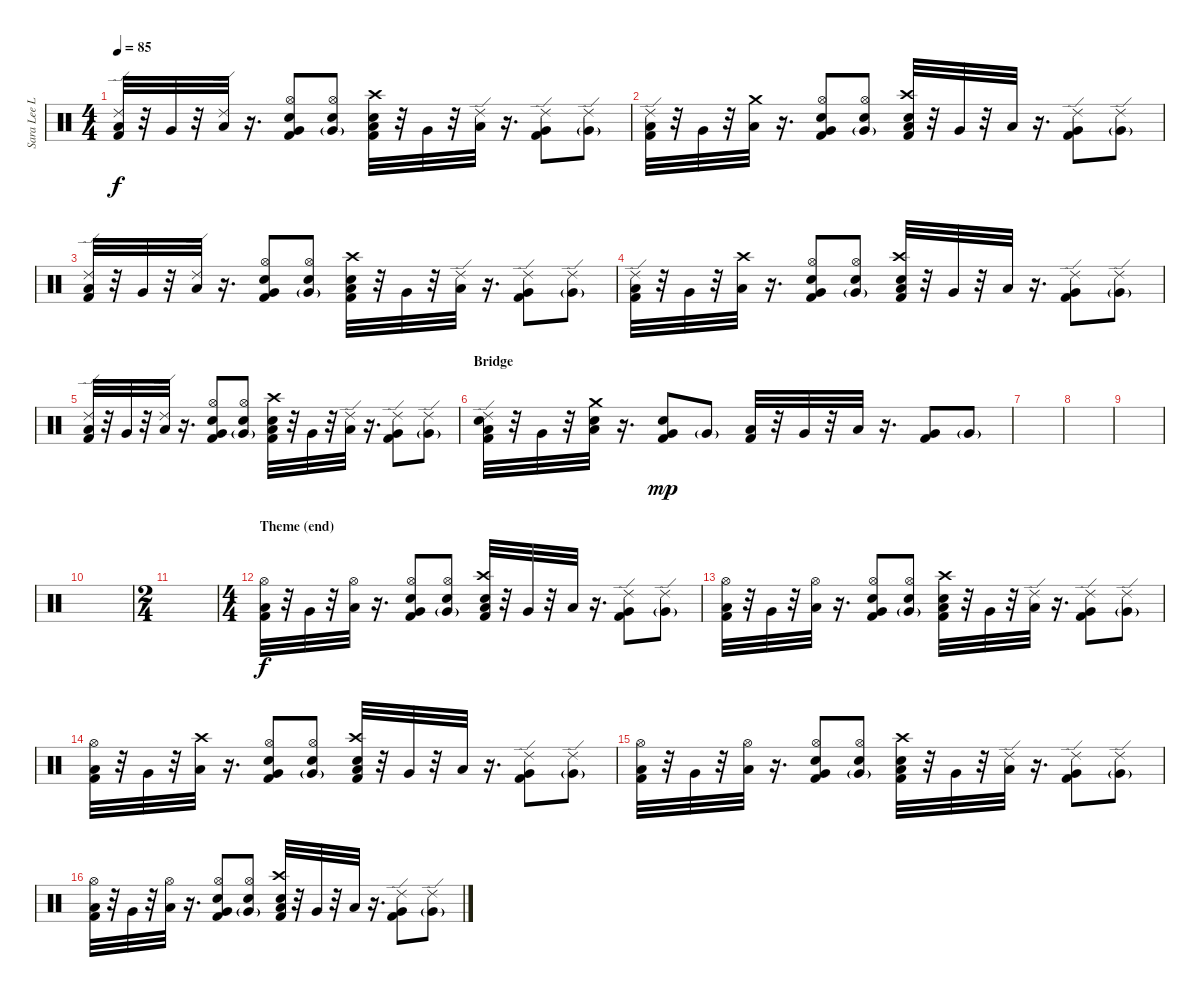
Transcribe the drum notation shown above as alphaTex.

\track ("Sara Lee Lucas [Drums]" "Sara Lee L") {instrument percussion}
\staff {score}
\articulation defaults
\ts (4 4)
\tempo 85
\clef neutral
\ks c
("Ride (edge) 2" "Low Tom (hit)" "Kick (hit) 2").32{dy f} r.32 "Very Low Tom (hit)".32 r.32 ("Ride (edge) 2" "Low Floor Tom (hit)").32 r.16{d} ("Hi-Hat (open)" "Very Low Tom (hit)" "Snare (hit) 2" "Kick (hit) 2").8 ("Hi-Hat (open)" "Very Low Tom (hit)"{g} "Snare (hit) 2").8 ("Crash high (hit)" "Low Tom (hit)" "Electric Snare (hit)" "Kick (hit) 2").32 r.32 "Very Low Tom (hit)".32 r.32 ("Ride (edge) 2" "Low Floor Tom (hit)").32 r.16{d} ("Ride (edge) 2" "Very Low Tom (hit)" "Kick (hit) 2").8 ("Ride (edge) 2" "Very Low Tom (hit)"{g}).8 |
("Ride (edge) 2" "Low Tom (hit)" "Kick (hit) 2").32 r.32 "Very Low Tom (hit)".32 r.32 ("Crash medium (hit)" "Low Floor Tom (hit)").32 r.16{d} ("Hi-Hat (open)" "Very Low Tom (hit)" "Snare (hit) 2" "Kick (hit) 2").8 ("Hi-Hat (open)" "Very Low Tom (hit)"{g} "Snare (hit) 2").8 ("Crash high (hit)" "Low Tom (hit)" "Electric Snare (hit)" "Kick (hit) 2").32 r.32 "Very Low Tom (hit)".32 r.32 "Low Floor Tom (hit)".32 r.16{d} ("Ride (edge) 2" "Very Low Tom (hit)" "Kick (hit) 2").8 ("Ride (edge) 2" "Very Low Tom (hit)"{g}).8 |
("Ride (edge) 2" "Low Tom (hit)" "Kick (hit) 2").32 r.32 "Very Low Tom (hit)".32 r.32 ("Ride (edge) 2" "Low Floor Tom (hit)").32 r.16{d} ("Hi-Hat (open)" "Very Low Tom (hit)" "Snare (hit) 2" "Kick (hit) 2").8 ("Hi-Hat (open)" "Very Low Tom (hit)"{g} "Snare (hit) 2").8 ("Crash high (hit)" "Low Tom (hit)" "Electric Snare (hit)" "Kick (hit) 2").32 r.32 "Very Low Tom (hit)".32 r.32 ("Ride (edge) 2" "Low Floor Tom (hit)").32 r.16{d} ("Ride (edge) 2" "Very Low Tom (hit)" "Kick (hit) 2").8 ("Ride (edge) 2" "Very Low Tom (hit)"{g}).8 |
("Ride (edge) 2" "Low Tom (hit)" "Kick (hit) 2").32 r.32 "Very Low Tom (hit)".32 r.32 ("Crash high (hit)" "Low Floor Tom (hit)").32 r.16{d} ("Hi-Hat (open)" "Very Low Tom (hit)" "Snare (hit) 2" "Kick (hit) 2").8 ("Hi-Hat (open)" "Very Low Tom (hit)"{g} "Snare (hit) 2").8 ("Crash high (hit)" "Low Tom (hit)" "Electric Snare (hit)" "Kick (hit) 2").32 r.32 "Very Low Tom (hit)".32 r.32 "Low Floor Tom (hit)".32 r.16{d} ("Ride (edge) 2" "Very Low Tom (hit)" "Kick (hit) 2").8 ("Ride (edge) 2" "Very Low Tom (hit)"{g}).8 |
("Ride (edge) 2" "Low Tom (hit)" "Kick (hit) 2").32 r.32 "Very Low Tom (hit)".32 r.32 ("Ride (edge) 2" "Low Floor Tom (hit)").32 r.16{d} ("Hi-Hat (open)" "Very Low Tom (hit)" "Snare (hit) 2" "Kick (hit) 2").8 ("Hi-Hat (open)" "Very Low Tom (hit)"{g} "Snare (hit) 2").8 ("Crash high (hit)" "Low Tom (hit)" "Electric Snare (hit)" "Kick (hit) 2").32 r.32 "Very Low Tom (hit)".32 r.32 ("Ride (edge) 2" "Low Floor Tom (hit)").32 r.16{d} ("Ride (edge) 2" "Very Low Tom (hit)" "Kick (hit) 2").8 ("Ride (edge) 2" "Very Low Tom (hit)"{g}).8 |
\section ("" "Bridge")
("Ride (edge) 2" "Low Tom (hit)" "Snare (hit) 2" "Kick (hit) 2").32 r.32 "Very Low Tom (hit)".32 r.32 ("Crash medium (hit)" "Low Floor Tom (hit)" "Snare (hit) 2").32 r.16{d} ("Very Low Tom (hit)" "Electric Snare (hit)" "Kick (hit) 2").8{dy mp} "Very Low Tom (hit)"{g}.8 ("Low Tom (hit)" "Kick (hit) 2").32 r.32 "Very Low Tom (hit)".32 r.32 "Low Floor Tom (hit)".32 r.16{d} ("Very Low Tom (hit)" "Kick (hit) 2").8 "Very Low Tom (hit)"{g}.8 |
|
|
|
|
\ts (2 4)
|
\ts (4 4)
\section ("" "Theme (end)")
("Hi-Hat (open)" "Low Tom (hit)" "Kick (hit) 2").32{dy f} r.32 "Very Low Tom (hit)".32 r.32 ("Hi-Hat (open)" "Low Floor Tom (hit)").32 r.16{d} ("Hi-Hat (open)" "Very Low Tom (hit)" "Snare (hit) 2" "Kick (hit) 2").8 ("Hi-Hat (open)" "Very Low Tom (hit)"{g} "Snare (hit) 2").8 ("Crash high (hit)" "Low Tom (hit)" "Electric Snare (hit)" "Kick (hit) 2").32 r.32 "Very Low Tom (hit)".32 r.32 "Low Floor Tom (hit)".32 r.16{d} ("Ride (edge) 2" "Very Low Tom (hit)" "Kick (hit) 2").8 ("Ride (edge) 2" "Very Low Tom (hit)"{g}).8 |
("Hi-Hat (open)" "Low Tom (hit)" "Kick (hit) 2").32 r.32 "Very Low Tom (hit)".32 r.32 ("Hi-Hat (open)" "Low Floor Tom (hit)").32 r.16{d} ("Hi-Hat (open)" "Very Low Tom (hit)" "Snare (hit) 2" "Kick (hit) 2").8 ("Hi-Hat (open)" "Very Low Tom (hit)"{g} "Snare (hit) 2").8 ("Crash high (hit)" "Low Tom (hit)" "Electric Snare (hit)" "Kick (hit) 2").32 r.32 "Very Low Tom (hit)".32 r.32 ("Ride (edge) 2" "Low Floor Tom (hit)").32 r.16{d} ("Ride (edge) 2" "Very Low Tom (hit)" "Kick (hit) 2").8 ("Ride (edge) 2" "Very Low Tom (hit)"{g}).8 |
("Hi-Hat (open)" "Low Tom (hit)" "Kick (hit) 2").32 r.32 "Very Low Tom (hit)".32 r.32 ("Crash high (hit)" "Low Floor Tom (hit)").32 r.16{d} ("Hi-Hat (open)" "Very Low Tom (hit)" "Snare (hit) 2" "Kick (hit) 2").8 ("Hi-Hat (open)" "Very Low Tom (hit)"{g} "Snare (hit) 2").8 ("Crash high (hit)" "Low Tom (hit)" "Electric Snare (hit)" "Kick (hit) 2").32 r.32 "Very Low Tom (hit)".32 r.32 "Low Floor Tom (hit)".32 r.16{d} ("Ride (edge) 2" "Very Low Tom (hit)" "Kick (hit) 2").8 ("Ride (edge) 2" "Very Low Tom (hit)"{g}).8 |
("Hi-Hat (open)" "Low Tom (hit)" "Kick (hit) 2").32 r.32 "Very Low Tom (hit)".32 r.32 ("Hi-Hat (open)" "Low Floor Tom (hit)").32 r.16{d} ("Hi-Hat (open)" "Very Low Tom (hit)" "Snare (hit) 2" "Kick (hit) 2").8 ("Hi-Hat (open)" "Very Low Tom (hit)"{g} "Snare (hit) 2").8 ("Crash high (hit)" "Low Tom (hit)" "Electric Snare (hit)" "Kick (hit) 2").32 r.32 "Very Low Tom (hit)".32 r.32 ("Ride (edge) 2" "Low Floor Tom (hit)").32 r.16{d} ("Ride (edge) 2" "Very Low Tom (hit)" "Kick (hit) 2").8 ("Ride (edge) 2" "Very Low Tom (hit)"{g}).8 |
("Hi-Hat (open)" "Low Tom (hit)" "Kick (hit) 2").32 r.32 "Very Low Tom (hit)".32 r.32 ("Hi-Hat (open)" "Low Floor Tom (hit)").32 r.16{d} ("Hi-Hat (open)" "Very Low Tom (hit)" "Snare (hit) 2" "Kick (hit) 2").8 ("Hi-Hat (open)" "Very Low Tom (hit)"{g} "Snare (hit) 2").8 ("Crash high (hit)" "Low Tom (hit)" "Electric Snare (hit)" "Kick (hit) 2").32 r.32 "Very Low Tom (hit)".32 r.32 "Low Floor Tom (hit)".32 r.16{d} ("Ride (edge) 2" "Very Low Tom (hit)" "Kick (hit) 2").8 ("Ride (edge) 2" "Very Low Tom (hit)"{g}).8
